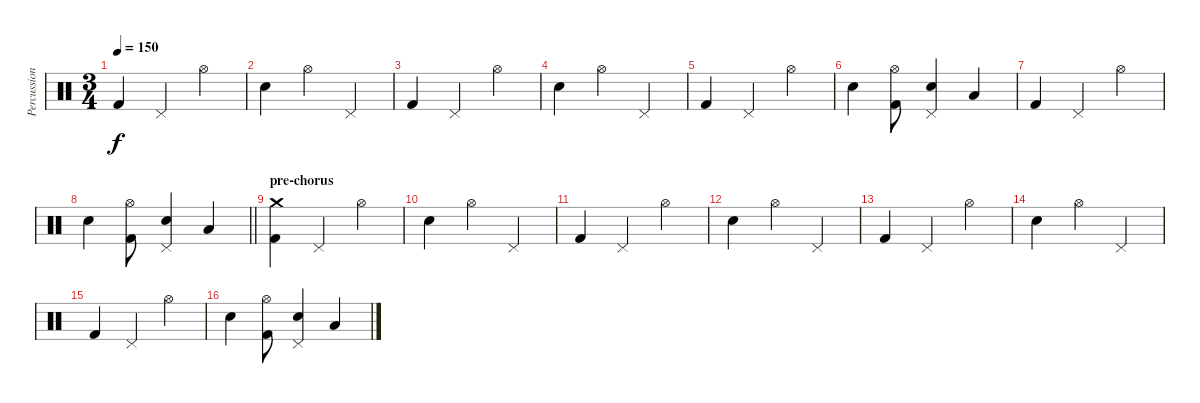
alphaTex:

\track ("Percussion" "Percussion") {instrument percussion}
\staff {score}
\articulation defaults
\ts (3 4)
\tempo 150
\clef neutral
\ks c "Kick (hit) 2".4{dy f} "Pedal Hi-Hat (hit)".4 "Hi-Hat (open)".4
|
"Snare (hit) 2".4 "Hi-Hat (open)".4 "Pedal Hi-Hat (hit)".4 |
"Kick (hit) 2".4 "Pedal Hi-Hat (hit)".4 "Hi-Hat (open)".4 |
"Snare (hit) 2".4 "Hi-Hat (open)".4 "Pedal Hi-Hat (hit)".4 |
"Kick (hit) 2".4 "Pedal Hi-Hat (hit)".4 "Hi-Hat (open)".4 |
"Snare (hit) 2".4 ("Kick (hit) 2" "Hi-Hat (open)").8 ("Snare (hit) 2" "Pedal Hi-Hat (hit)").4 "Low Tom (hit)".4 |
"Kick (hit) 2".4 "Pedal Hi-Hat (hit)".4 "Hi-Hat (open)".4 |
\barLineRight lightlight "Snare (hit) 2".4
("Kick (hit) 2" "Hi-Hat (open)").8 ("Snare (hit) 2" "Pedal Hi-Hat (hit)").4 "Low Tom (hit)".4 |
\section ("" "pre-chorus")
("Kick (hit) 2" "Crash medium (hit)").4 "Pedal Hi-Hat (hit)".4 "Hi-Hat (open)".4 |
"Snare (hit) 2".4 "Hi-Hat (open)".4 "Pedal Hi-Hat (hit)".4 |
"Kick (hit) 2".4 "Pedal Hi-Hat (hit)".4 "Hi-Hat (open)".4 |
"Snare (hit) 2".4 "Hi-Hat (open)".4 "Pedal Hi-Hat (hit)".4 |
"Kick (hit) 2".4 "Pedal Hi-Hat (hit)".4 "Hi-Hat (open)".4 |
"Snare (hit) 2".4 "Hi-Hat (open)".4 "Pedal Hi-Hat (hit)".4 |
"Kick (hit) 2".4 "Pedal Hi-Hat (hit)".4 "Hi-Hat (open)".4 |
"Snare (hit) 2".4 ("Kick (hit) 2" "Hi-Hat (open)").8 ("Snare (hit) 2" "Pedal Hi-Hat (hit)").4 "Low Tom (hit)".4
